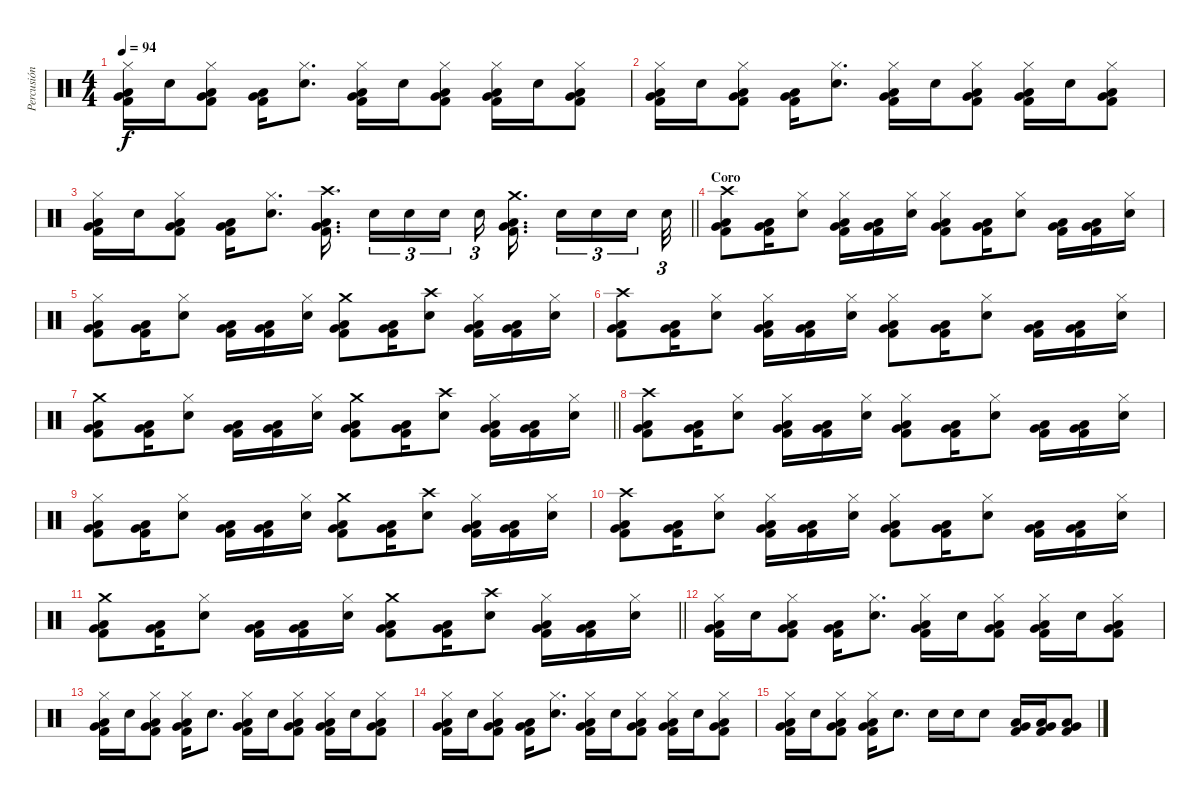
\track ("Percusión" "Percusión") {instrument percussion}
\staff {score}
\articulation defaults
\ts (4 4)
\tempo 94
\clef neutral
\ks c
("Hi-Hat (closed)" "Kick (hit) 2" "Low Floor Tom (hit)" "Very Low Tom (hit)").16{dy f} "Electric Snare (hit)".16 ("Hi-Hat (closed)" "Kick (hit) 2" "Low Floor Tom (hit)" "Very Low Tom (hit)").8 ("Kick (hit) 2" "Low Floor Tom (hit)" "Very Low Tom (hit)").16 ("Hi-Hat (closed)" "Electric Snare (hit)").8{d} ("Hi-Hat (closed)" "Kick (hit) 2" "Low Floor Tom (hit)" "Very Low Tom (hit)").16 "Electric Snare (hit)".16 ("Hi-Hat (closed)" "Kick (hit) 2" "Low Floor Tom (hit)" "Very Low Tom (hit)").8 ("Hi-Hat (closed)" "Kick (hit) 2" "Low Floor Tom (hit)" "Very Low Tom (hit)").16 "Electric Snare (hit)".16 ("Hi-Hat (closed)" "Kick (hit) 2" "Low Floor Tom (hit)" "Very Low Tom (hit)").8 |
("Hi-Hat (closed)" "Kick (hit) 2" "Low Floor Tom (hit)" "Very Low Tom (hit)").16 "Electric Snare (hit)".16 ("Hi-Hat (closed)" "Kick (hit) 2" "Low Floor Tom (hit)" "Very Low Tom (hit)").8 ("Kick (hit) 2" "Low Floor Tom (hit)" "Very Low Tom (hit)").16 ("Hi-Hat (closed)" "Electric Snare (hit)").8{d} ("Hi-Hat (closed)" "Kick (hit) 2" "Low Floor Tom (hit)" "Very Low Tom (hit)").16 "Electric Snare (hit)".16 ("Hi-Hat (closed)" "Kick (hit) 2" "Low Floor Tom (hit)" "Very Low Tom (hit)").8 ("Hi-Hat (closed)" "Kick (hit) 2" "Low Floor Tom (hit)" "Very Low Tom (hit)").16 "Electric Snare (hit)".16 ("Hi-Hat (closed)" "Kick (hit) 2" "Low Floor Tom (hit)" "Very Low Tom (hit)").8 |
\barLineRight lightlight
("Hi-Hat (closed)" "Kick (hit) 2" "Low Floor Tom (hit)" "Very Low Tom (hit)").16 "Electric Snare (hit)".16 ("Hi-Hat (closed)" "Kick (hit) 2" "Low Floor Tom (hit)" "Very Low Tom (hit)").8 ("Kick (hit) 2" "Low Floor Tom (hit)" "Very Low Tom (hit)").16 ("Hi-Hat (closed)" "Electric Snare (hit)").8{d} ("Crash high (hit)" "Kick (hit) 2" "Low Floor Tom (hit)" "Very Low Tom (hit)").16{d beam splitsecondary} "Electric Snare (hit)".16{tu (3 2)} "Electric Snare (hit)".16{tu (3 2)} "Electric Snare (hit)".16{tu (3 2) beam splitsecondary} "Electric Snare (hit)".16{tu (3 2)} ("Crash medium (hit)" "Kick (hit) 2" "Low Floor Tom (hit)" "Very Low Tom (hit)").16{d beam splitsecondary} "Electric Snare (hit)".16{tu (3 2)} "Electric Snare (hit)".16{tu (3 2)} "Electric Snare (hit)".16{tu (3 2) beam splitsecondary} "Electric Snare (hit)".32{tu (3 2)} |
\section ("" "Coro")
("Crash high (hit)" "Kick (hit) 2" "Low Floor Tom (hit)" "Very Low Tom (hit)").8 ("Kick (hit) 2" "Low Floor Tom (hit)" "Very Low Tom (hit)").16 ("Hi-Hat (closed)" "Electric Snare (hit)").8 ("Hi-Hat (closed)" "Kick (hit) 2" "Low Floor Tom (hit)" "Very Low Tom (hit)").16 ("Kick (hit) 2" "Low Floor Tom (hit)" "Very Low Tom (hit)").16 ("Hi-Hat (closed)" "Electric Snare (hit)").16 ("Hi-Hat (closed)" "Kick (hit) 2" "Low Floor Tom (hit)" "Very Low Tom (hit)").8 ("Kick (hit) 2" "Low Floor Tom (hit)" "Very Low Tom (hit)").16 ("Hi-Hat (closed)" "Electric Snare (hit)").8 ("Kick (hit) 2" "Low Floor Tom (hit)" "Very Low Tom (hit)").16 ("Kick (hit) 2" "Low Floor Tom (hit)" "Very Low Tom (hit)").16 ("Hi-Hat (closed)" "Electric Snare (hit)").16 |
("Hi-Hat (closed)" "Kick (hit) 2" "Low Floor Tom (hit)" "Very Low Tom (hit)").8 ("Kick (hit) 2" "Low Floor Tom (hit)" "Very Low Tom (hit)").16 ("Hi-Hat (closed)" "Electric Snare (hit)").8 ("Kick (hit) 2" "Low Floor Tom (hit)" "Very Low Tom (hit)").16 ("Kick (hit) 2" "Low Floor Tom (hit)" "Very Low Tom (hit)").16 ("Hi-Hat (closed)" "Electric Snare (hit)").16 ("Crash medium (hit)" "Kick (hit) 2" "Low Floor Tom (hit)" "Very Low Tom (hit)").8 ("Kick (hit) 2" "Low Floor Tom (hit)" "Very Low Tom (hit)").16 ("Crash high (hit)" "Electric Snare (hit)").8 ("Hi-Hat (closed)" "Kick (hit) 2" "Low Floor Tom (hit)" "Very Low Tom (hit)").16 ("Kick (hit) 2" "Low Floor Tom (hit)" "Very Low Tom (hit)").16 ("Hi-Hat (closed)" "Electric Snare (hit)").16 |
("Crash high (hit)" "Kick (hit) 2" "Low Floor Tom (hit)" "Very Low Tom (hit)").8 ("Kick (hit) 2" "Low Floor Tom (hit)" "Very Low Tom (hit)").16 ("Hi-Hat (closed)" "Electric Snare (hit)").8 ("Hi-Hat (closed)" "Kick (hit) 2" "Low Floor Tom (hit)" "Very Low Tom (hit)").16 ("Kick (hit) 2" "Low Floor Tom (hit)" "Very Low Tom (hit)").16 ("Hi-Hat (closed)" "Electric Snare (hit)").16 ("Hi-Hat (closed)" "Kick (hit) 2" "Low Floor Tom (hit)" "Very Low Tom (hit)").8 ("Kick (hit) 2" "Low Floor Tom (hit)" "Very Low Tom (hit)").16 ("Hi-Hat (closed)" "Electric Snare (hit)").8 ("Kick (hit) 2" "Low Floor Tom (hit)" "Very Low Tom (hit)").16 ("Kick (hit) 2" "Low Floor Tom (hit)" "Very Low Tom (hit)").16 ("Hi-Hat (closed)" "Electric Snare (hit)").16 |
\barLineRight lightlight
("Crash medium (hit)" "Kick (hit) 2" "Low Floor Tom (hit)" "Very Low Tom (hit)").8 ("Kick (hit) 2" "Low Floor Tom (hit)" "Very Low Tom (hit)").16 ("Hi-Hat (closed)" "Electric Snare (hit)").8 ("Kick (hit) 2" "Low Floor Tom (hit)" "Very Low Tom (hit)").16 ("Kick (hit) 2" "Low Floor Tom (hit)" "Very Low Tom (hit)").16 ("Hi-Hat (closed)" "Electric Snare (hit)").16 ("Crash medium (hit)" "Kick (hit) 2" "Low Floor Tom (hit)" "Very Low Tom (hit)").8 ("Kick (hit) 2" "Low Floor Tom (hit)" "Very Low Tom (hit)").16 ("Crash high (hit)" "Electric Snare (hit)").8 ("Hi-Hat (closed)" "Kick (hit) 2" "Low Floor Tom (hit)" "Very Low Tom (hit)").16 ("Kick (hit) 2" "Low Floor Tom (hit)" "Very Low Tom (hit)").16 ("Hi-Hat (closed)" "Electric Snare (hit)").16 |
("Crash high (hit)" "Kick (hit) 2" "Low Floor Tom (hit)" "Very Low Tom (hit)").8 ("Kick (hit) 2" "Low Floor Tom (hit)" "Very Low Tom (hit)").16 ("Hi-Hat (closed)" "Electric Snare (hit)").8 ("Hi-Hat (closed)" "Kick (hit) 2" "Low Floor Tom (hit)" "Very Low Tom (hit)").16 ("Kick (hit) 2" "Low Floor Tom (hit)" "Very Low Tom (hit)").16 ("Hi-Hat (closed)" "Electric Snare (hit)").16 ("Hi-Hat (closed)" "Kick (hit) 2" "Low Floor Tom (hit)" "Very Low Tom (hit)").8 ("Kick (hit) 2" "Low Floor Tom (hit)" "Very Low Tom (hit)").16 ("Hi-Hat (closed)" "Electric Snare (hit)").8 ("Kick (hit) 2" "Low Floor Tom (hit)" "Very Low Tom (hit)").16 ("Kick (hit) 2" "Low Floor Tom (hit)" "Very Low Tom (hit)").16 ("Hi-Hat (closed)" "Electric Snare (hit)").16 |
("Hi-Hat (closed)" "Kick (hit) 2" "Low Floor Tom (hit)" "Very Low Tom (hit)").8 ("Kick (hit) 2" "Low Floor Tom (hit)" "Very Low Tom (hit)").16 ("Hi-Hat (closed)" "Electric Snare (hit)").8 ("Kick (hit) 2" "Low Floor Tom (hit)" "Very Low Tom (hit)").16 ("Kick (hit) 2" "Low Floor Tom (hit)" "Very Low Tom (hit)").16 ("Hi-Hat (closed)" "Electric Snare (hit)").16 ("Crash medium (hit)" "Kick (hit) 2" "Low Floor Tom (hit)" "Very Low Tom (hit)").8 ("Kick (hit) 2" "Low Floor Tom (hit)" "Very Low Tom (hit)").16 ("Crash high (hit)" "Electric Snare (hit)").8 ("Hi-Hat (closed)" "Kick (hit) 2" "Low Floor Tom (hit)" "Very Low Tom (hit)").16 ("Kick (hit) 2" "Low Floor Tom (hit)" "Very Low Tom (hit)").16 ("Hi-Hat (closed)" "Electric Snare (hit)").16 |
("Crash high (hit)" "Kick (hit) 2" "Low Floor Tom (hit)" "Very Low Tom (hit)").8 ("Kick (hit) 2" "Low Floor Tom (hit)" "Very Low Tom (hit)").16 ("Hi-Hat (closed)" "Electric Snare (hit)").8 ("Hi-Hat (closed)" "Kick (hit) 2" "Low Floor Tom (hit)" "Very Low Tom (hit)").16 ("Kick (hit) 2" "Low Floor Tom (hit)" "Very Low Tom (hit)").16 ("Hi-Hat (closed)" "Electric Snare (hit)").16 ("Hi-Hat (closed)" "Kick (hit) 2" "Low Floor Tom (hit)" "Very Low Tom (hit)").8 ("Kick (hit) 2" "Low Floor Tom (hit)" "Very Low Tom (hit)").16 ("Hi-Hat (closed)" "Electric Snare (hit)").8 ("Kick (hit) 2" "Low Floor Tom (hit)" "Very Low Tom (hit)").16 ("Kick (hit) 2" "Low Floor Tom (hit)" "Very Low Tom (hit)").16 ("Hi-Hat (closed)" "Electric Snare (hit)").16 |
\barLineRight lightlight
("Crash medium (hit)" "Kick (hit) 2" "Low Floor Tom (hit)" "Very Low Tom (hit)").8 ("Kick (hit) 2" "Low Floor Tom (hit)" "Very Low Tom (hit)").16 ("Hi-Hat (closed)" "Electric Snare (hit)").8 ("Kick (hit) 2" "Low Floor Tom (hit)" "Very Low Tom (hit)").16 ("Kick (hit) 2" "Low Floor Tom (hit)" "Very Low Tom (hit)").16 ("Hi-Hat (closed)" "Electric Snare (hit)").16 ("Crash medium (hit)" "Kick (hit) 2" "Low Floor Tom (hit)" "Very Low Tom (hit)").8 ("Kick (hit) 2" "Low Floor Tom (hit)" "Very Low Tom (hit)").16 ("Crash high (hit)" "Electric Snare (hit)").8 ("Hi-Hat (closed)" "Kick (hit) 2" "Low Floor Tom (hit)" "Very Low Tom (hit)").16 ("Kick (hit) 2" "Low Floor Tom (hit)" "Very Low Tom (hit)").16 ("Hi-Hat (closed)" "Electric Snare (hit)").16 |
("Hi-Hat (closed)" "Kick (hit) 2" "Low Floor Tom (hit)" "Very Low Tom (hit)").16 "Electric Snare (hit)".16 ("Hi-Hat (closed)" "Kick (hit) 2" "Low Floor Tom (hit)" "Very Low Tom (hit)").8 ("Kick (hit) 2" "Low Floor Tom (hit)" "Very Low Tom (hit)").16 ("Hi-Hat (closed)" "Electric Snare (hit)").8{d} ("Hi-Hat (closed)" "Kick (hit) 2" "Low Floor Tom (hit)" "Very Low Tom (hit)").16 "Electric Snare (hit)".16 ("Hi-Hat (closed)" "Kick (hit) 2" "Low Floor Tom (hit)" "Very Low Tom (hit)").8 ("Hi-Hat (closed)" "Kick (hit) 2" "Low Floor Tom (hit)" "Very Low Tom (hit)").16 "Electric Snare (hit)".16 ("Hi-Hat (closed)" "Kick (hit) 2" "Low Floor Tom (hit)" "Very Low Tom (hit)").8 |
("Hi-Hat (closed)" "Kick (hit) 2" "Low Floor Tom (hit)" "Very Low Tom (hit)").16 "Electric Snare (hit)".16 ("Hi-Hat (closed)" "Kick (hit) 2" "Low Floor Tom (hit)" "Very Low Tom (hit)").8 ("Hi-Hat (closed)" "Kick (hit) 2" "Low Floor Tom (hit)" "Very Low Tom (hit)").16 "Electric Snare (hit)".8{d} ("Hi-Hat (closed)" "Kick (hit) 2" "Low Floor Tom (hit)" "Very Low Tom (hit)").16 "Electric Snare (hit)".16 ("Hi-Hat (closed)" "Kick (hit) 2" "Low Floor Tom (hit)" "Very Low Tom (hit)").8 ("Hi-Hat (closed)" "Kick (hit) 2" "Low Floor Tom (hit)" "Very Low Tom (hit)").16 "Electric Snare (hit)".16 ("Hi-Hat (closed)" "Kick (hit) 2" "Low Floor Tom (hit)" "Very Low Tom (hit)").8 |
("Hi-Hat (closed)" "Kick (hit) 2" "Low Floor Tom (hit)" "Very Low Tom (hit)").16 "Electric Snare (hit)".16 ("Hi-Hat (closed)" "Kick (hit) 2" "Low Floor Tom (hit)" "Very Low Tom (hit)").8 ("Kick (hit) 2" "Low Floor Tom (hit)" "Very Low Tom (hit)").16 ("Hi-Hat (closed)" "Electric Snare (hit)").8{d} ("Hi-Hat (closed)" "Kick (hit) 2" "Low Floor Tom (hit)" "Very Low Tom (hit)").16 "Electric Snare (hit)".16 ("Hi-Hat (closed)" "Kick (hit) 2" "Low Floor Tom (hit)" "Very Low Tom (hit)").8 ("Hi-Hat (closed)" "Kick (hit) 2" "Low Floor Tom (hit)" "Very Low Tom (hit)").16 "Electric Snare (hit)".16 ("Hi-Hat (closed)" "Kick (hit) 2" "Low Floor Tom (hit)" "Very Low Tom (hit)").8 |
("Hi-Hat (closed)" "Kick (hit) 2" "Low Floor Tom (hit)" "Very Low Tom (hit)").16 "Electric Snare (hit)".16 ("Hi-Hat (closed)" "Kick (hit) 2" "Low Floor Tom (hit)" "Very Low Tom (hit)").8 ("Hi-Hat (closed)" "Kick (hit) 2" "Low Floor Tom (hit)" "Very Low Tom (hit)").16 "Electric Snare (hit)".8{d} "Electric Snare (hit)".16 "Electric Snare (hit)".16 "Electric Snare (hit)".8 ("Kick (hit) 2" "Low Floor Tom (hit)" "Very Low Tom (hit)").16 ("Kick (hit) 2" "Low Floor Tom (hit)" "Very Low Tom (hit)").16 ("Kick (hit) 2" "Low Floor Tom (hit)" "Very Low Tom (hit)").8
